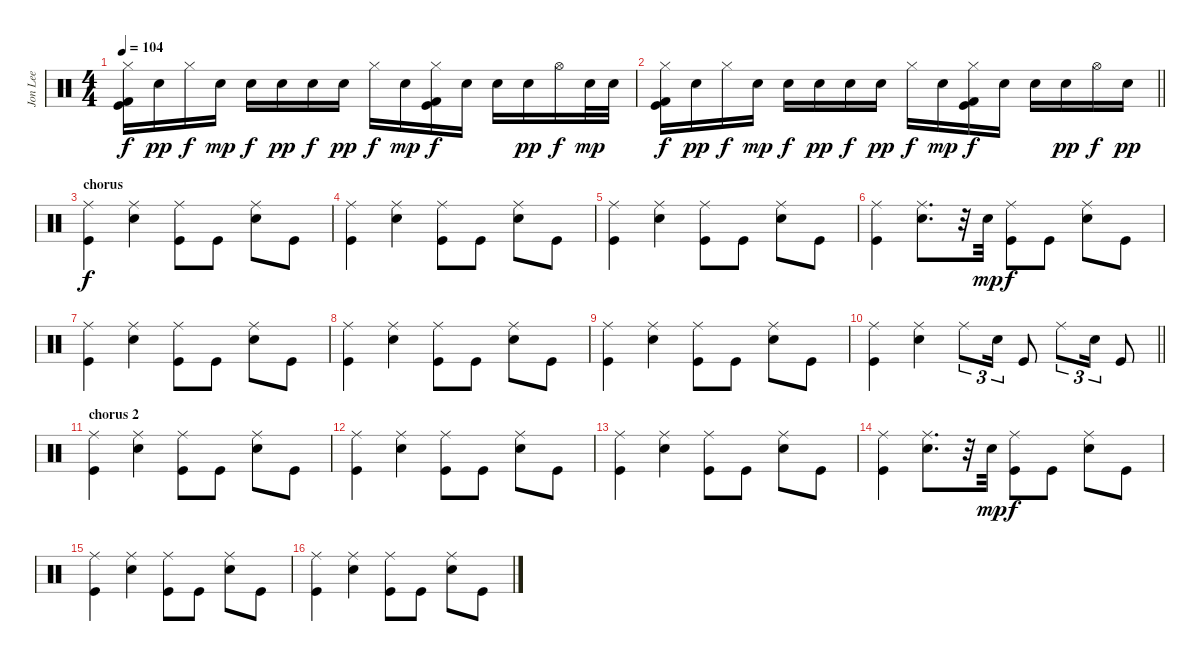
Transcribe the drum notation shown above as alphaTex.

\track ("Jon Lee" "Jon Lee") {instrument percussion}
\staff {score}
\articulation defaults
\ts (4 4)
\tempo 104
\clef neutral
\ks c
("Hi-Hat (closed)" "Kick (hit)" "Kick (hit) 2").16{dy f} "Electric Snare (hit)".16{dy pp} "Hi-Hat (closed)".16{dy f} "Electric Snare (hit)".16{dy mp} "Electric Snare (hit)".16{dy f} "Electric Snare (hit)".16{dy pp} "Electric Snare (hit)".16{dy f} "Electric Snare (hit)".16{dy pp} "Hi-Hat (closed)".16{dy f} "Electric Snare (hit)".16{dy mp} ("Hi-Hat (closed)" "Kick (hit)" "Kick (hit) 2").16{dy f} "Electric Snare (hit)".16 "Electric Snare (hit)".16 "Electric Snare (hit)".16{dy pp} "Hi-Hat (open)".16{dy f} "Electric Snare (hit)".32{dy mp} "Electric Snare (hit)".32 |
\barLineRight lightlight
("Hi-Hat (closed)" "Kick (hit)" "Kick (hit) 2").16{dy f} "Electric Snare (hit)".16{dy pp} "Hi-Hat (closed)".16{dy f} "Electric Snare (hit)".16{dy mp} "Electric Snare (hit)".16{dy f} "Electric Snare (hit)".16{dy pp} "Electric Snare (hit)".16{dy f} "Electric Snare (hit)".16{dy pp} "Hi-Hat (closed)".16{dy f} "Electric Snare (hit)".16{dy mp} ("Hi-Hat (closed)" "Kick (hit)" "Kick (hit) 2").16{dy f} "Electric Snare (hit)".16 "Electric Snare (hit)".16 "Electric Snare (hit)".16{dy pp} "Hi-Hat (open)".16{dy f} "Electric Snare (hit)".16{dy pp} |
\section ("" "chorus")
("Ride (middle)" "Kick (hit)").4{dy f} ("Ride (middle)" "Electric Snare (hit)").4 ("Ride (middle)" "Kick (hit)").8 "Kick (hit)".8 ("Ride (middle)" "Electric Snare (hit)").8 "Kick (hit)".8 |
("Ride (middle)" "Kick (hit)").4 ("Ride (middle)" "Electric Snare (hit)").4 ("Ride (middle)" "Kick (hit)").8 "Kick (hit)".8 ("Ride (middle)" "Electric Snare (hit)").8 "Kick (hit)".8 |
("Ride (middle)" "Kick (hit)").4 ("Ride (middle)" "Electric Snare (hit)").4 ("Ride (middle)" "Kick (hit)").8 "Kick (hit)".8 ("Ride (middle)" "Electric Snare (hit)").8 "Kick (hit)".8 |
("Ride (middle)" "Kick (hit)").4 ("Ride (middle)" "Electric Snare (hit)").8{d} r.32 "Electric Snare (hit)".32{dy mp} ("Ride (middle)" "Kick (hit)").8{dy f} "Kick (hit)".8 ("Ride (middle)" "Electric Snare (hit)").8 "Kick (hit)".8 |
("Ride (middle)" "Kick (hit)").4 ("Ride (middle)" "Electric Snare (hit)").4 ("Ride (middle)" "Kick (hit)").8 "Kick (hit)".8 ("Ride (middle)" "Electric Snare (hit)").8 "Kick (hit)".8 |
("Ride (middle)" "Kick (hit)").4 ("Ride (middle)" "Electric Snare (hit)").4 ("Ride (middle)" "Kick (hit)").8 "Kick (hit)".8 ("Ride (middle)" "Electric Snare (hit)").8 "Kick (hit)".8 |
("Ride (middle)" "Kick (hit)").4 ("Ride (middle)" "Electric Snare (hit)").4 ("Ride (middle)" "Kick (hit)").8 "Kick (hit)".8 ("Ride (middle)" "Electric Snare (hit)").8 "Kick (hit)".8 |
\barLineRight lightlight
("Ride (middle)" "Kick (hit)").4 ("Ride (middle)" "Electric Snare (hit)").4 "Ride (middle)".8{tu (3 2)} "Electric Snare (hit)".16{tu (3 2)} "Kick (hit)".8 "Ride (middle)".8{tu (3 2)} "Electric Snare (hit)".16{tu (3 2)} "Kick (hit)".8 |
\section ("" "chorus 2")
("Ride (middle)" "Kick (hit)").4 ("Ride (middle)" "Electric Snare (hit)").4 ("Ride (middle)" "Kick (hit)").8 "Kick (hit)".8 ("Ride (middle)" "Electric Snare (hit)").8 "Kick (hit)".8 |
("Ride (middle)" "Kick (hit)").4 ("Ride (middle)" "Electric Snare (hit)").4 ("Ride (middle)" "Kick (hit)").8 "Kick (hit)".8 ("Ride (middle)" "Electric Snare (hit)").8 "Kick (hit)".8 |
("Ride (middle)" "Kick (hit)").4 ("Ride (middle)" "Electric Snare (hit)").4 ("Ride (middle)" "Kick (hit)").8 "Kick (hit)".8 ("Ride (middle)" "Electric Snare (hit)").8 "Kick (hit)".8 |
("Ride (middle)" "Kick (hit)").4 ("Ride (middle)" "Electric Snare (hit)").8{d} r.32 "Electric Snare (hit)".32{dy mp} ("Ride (middle)" "Kick (hit)").8{dy f} "Kick (hit)".8 ("Ride (middle)" "Electric Snare (hit)").8 "Kick (hit)".8 |
("Ride (middle)" "Kick (hit)").4 ("Ride (middle)" "Electric Snare (hit)").4 ("Ride (middle)" "Kick (hit)").8 "Kick (hit)".8 ("Ride (middle)" "Electric Snare (hit)").8 "Kick (hit)".8 |
("Ride (middle)" "Kick (hit)").4 ("Ride (middle)" "Electric Snare (hit)").4 ("Ride (middle)" "Kick (hit)").8 "Kick (hit)".8 ("Ride (middle)" "Electric Snare (hit)").8 "Kick (hit)".8
